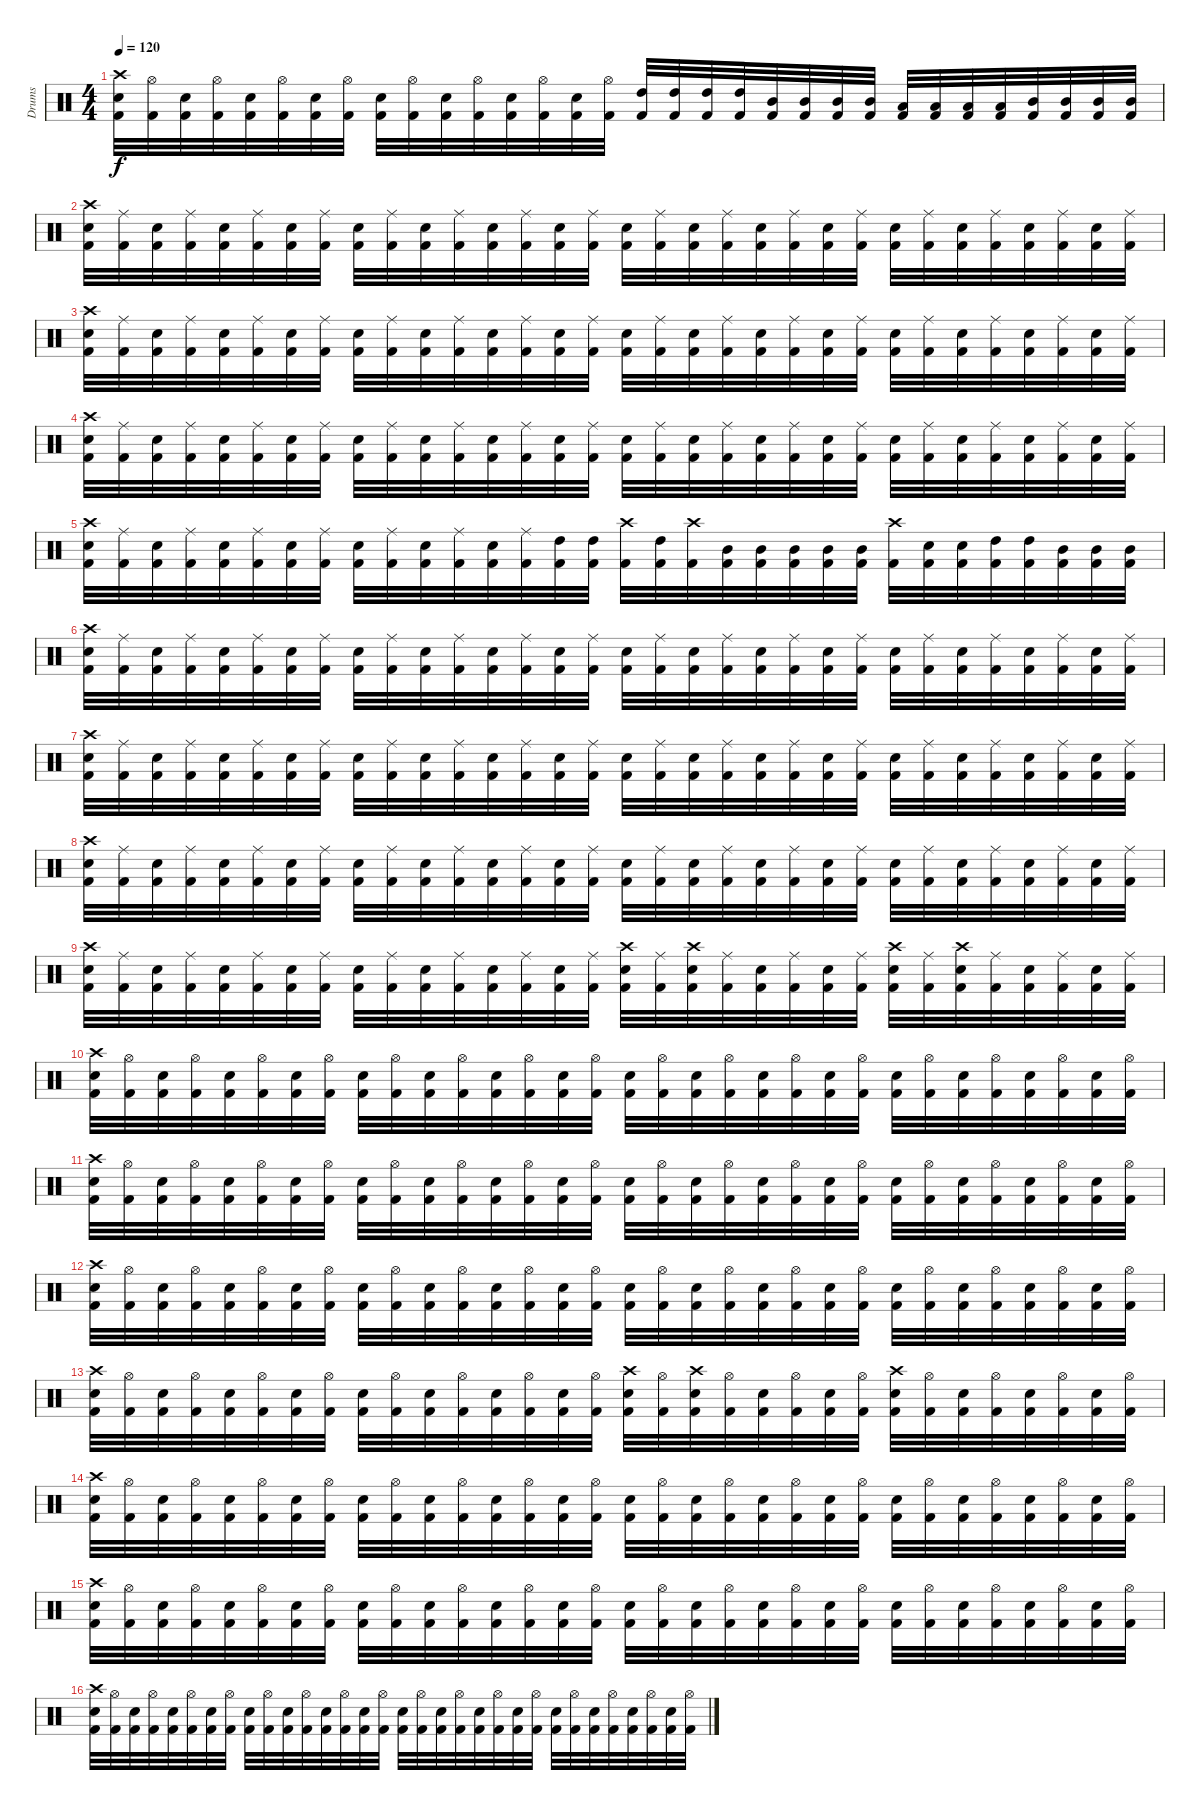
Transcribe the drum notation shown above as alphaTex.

\track ("Drums" "Drums") {instrument percussion}
\staff {score}
\articulation defaults
\ts (4 4)
\tempo 120
\clef neutral
\ks c
("Kick (hit) 2" "Electric Snare (hit)" "Crash high (hit)").32{dy f} ("Kick (hit) 2" "Hi-Hat (open)").32 ("Kick (hit) 2" "Electric Snare (hit)").32 ("Kick (hit) 2" "Hi-Hat (open)").32 ("Kick (hit) 2" "Electric Snare (hit)").32 ("Kick (hit) 2" "Hi-Hat (open)").32 ("Kick (hit) 2" "Electric Snare (hit)").32 ("Kick (hit) 2" "Hi-Hat (open)").32 ("Kick (hit) 2" "Electric Snare (hit)").32 ("Kick (hit) 2" "Hi-Hat (open)").32 ("Kick (hit) 2" "Electric Snare (hit)").32 ("Kick (hit) 2" "Hi-Hat (open)").32 ("Kick (hit) 2" "Electric Snare (hit)").32 ("Kick (hit) 2" "Hi-Hat (open)").32 ("Kick (hit) 2" "Electric Snare (hit)").32 ("Kick (hit) 2" "Hi-Hat (open)").32 ("Kick (hit) 2" "High Tom (hit)").32 ("Kick (hit) 2" "High Tom (hit)").32 ("Kick (hit) 2" "High Tom (hit)").32 ("Kick (hit) 2" "High Tom (hit)").32 ("Kick (hit) 2" "Mid Tom (hit)").32 ("Kick (hit) 2" "Mid Tom (hit)").32 ("Kick (hit) 2" "Mid Tom (hit)").32 ("Kick (hit) 2" "Mid Tom (hit)").32 ("Kick (hit) 2" "Low Tom (hit)").32 ("Kick (hit) 2" "Low Tom (hit)").32 ("Kick (hit) 2" "Low Tom (hit)").32 ("Kick (hit) 2" "Low Tom (hit)").32 ("Kick (hit) 2" "Mid Tom (hit)").32 ("Kick (hit) 2" "Mid Tom (hit)").32 ("Kick (hit) 2" "Mid Tom (hit)").32 ("Kick (hit) 2" "Mid Tom (hit)").32 |
("Kick (hit) 2" "Electric Snare (hit)" "Crash high (hit)").32 ("Kick (hit) 2" "Ride (middle)").32 ("Kick (hit) 2" "Electric Snare (hit)").32 ("Kick (hit) 2" "Ride (middle)").32 ("Kick (hit) 2" "Electric Snare (hit)").32 ("Kick (hit) 2" "Ride (middle)").32 ("Kick (hit) 2" "Electric Snare (hit)").32 ("Kick (hit) 2" "Ride (middle)").32 ("Kick (hit) 2" "Electric Snare (hit)").32 ("Kick (hit) 2" "Ride (middle)").32 ("Kick (hit) 2" "Electric Snare (hit)").32 ("Kick (hit) 2" "Ride (middle)").32 ("Kick (hit) 2" "Electric Snare (hit)").32 ("Kick (hit) 2" "Ride (middle)").32 ("Kick (hit) 2" "Electric Snare (hit)").32 ("Kick (hit) 2" "Ride (middle)").32 ("Kick (hit) 2" "Electric Snare (hit)").32 ("Kick (hit) 2" "Ride (middle)").32 ("Kick (hit) 2" "Electric Snare (hit)").32 ("Kick (hit) 2" "Ride (middle)").32 ("Kick (hit) 2" "Electric Snare (hit)").32 ("Kick (hit) 2" "Ride (middle)").32 ("Kick (hit) 2" "Electric Snare (hit)").32 ("Kick (hit) 2" "Ride (middle)").32 ("Kick (hit) 2" "Electric Snare (hit)").32 ("Kick (hit) 2" "Ride (middle)").32 ("Kick (hit) 2" "Electric Snare (hit)").32 ("Kick (hit) 2" "Ride (middle)").32 ("Kick (hit) 2" "Electric Snare (hit)").32 ("Kick (hit) 2" "Ride (middle)").32 ("Kick (hit) 2" "Electric Snare (hit)").32 ("Kick (hit) 2" "Ride (middle)").32 |
("Kick (hit) 2" "Electric Snare (hit)" "Crash high (hit)").32 ("Kick (hit) 2" "Ride (middle)").32 ("Kick (hit) 2" "Electric Snare (hit)").32 ("Kick (hit) 2" "Ride (middle)").32 ("Kick (hit) 2" "Electric Snare (hit)").32 ("Kick (hit) 2" "Ride (middle)").32 ("Kick (hit) 2" "Electric Snare (hit)").32 ("Kick (hit) 2" "Ride (middle)").32 ("Kick (hit) 2" "Electric Snare (hit)").32 ("Kick (hit) 2" "Ride (middle)").32 ("Kick (hit) 2" "Electric Snare (hit)").32 ("Kick (hit) 2" "Ride (middle)").32 ("Kick (hit) 2" "Electric Snare (hit)").32 ("Kick (hit) 2" "Ride (middle)").32 ("Kick (hit) 2" "Electric Snare (hit)").32 ("Kick (hit) 2" "Ride (middle)").32 ("Kick (hit) 2" "Electric Snare (hit)").32 ("Kick (hit) 2" "Ride (middle)").32 ("Kick (hit) 2" "Electric Snare (hit)").32 ("Kick (hit) 2" "Ride (middle)").32 ("Kick (hit) 2" "Electric Snare (hit)").32 ("Kick (hit) 2" "Ride (middle)").32 ("Kick (hit) 2" "Electric Snare (hit)").32 ("Kick (hit) 2" "Ride (middle)").32 ("Kick (hit) 2" "Electric Snare (hit)").32 ("Kick (hit) 2" "Ride (middle)").32 ("Kick (hit) 2" "Electric Snare (hit)").32 ("Kick (hit) 2" "Ride (middle)").32 ("Kick (hit) 2" "Electric Snare (hit)").32 ("Kick (hit) 2" "Ride (middle)").32 ("Kick (hit) 2" "Electric Snare (hit)").32 ("Kick (hit) 2" "Ride (middle)").32 |
("Kick (hit) 2" "Electric Snare (hit)" "Crash high (hit)").32 ("Kick (hit) 2" "Ride (middle)").32 ("Kick (hit) 2" "Electric Snare (hit)").32 ("Kick (hit) 2" "Ride (middle)").32 ("Kick (hit) 2" "Electric Snare (hit)").32 ("Kick (hit) 2" "Ride (middle)").32 ("Kick (hit) 2" "Electric Snare (hit)").32 ("Kick (hit) 2" "Ride (middle)").32 ("Kick (hit) 2" "Electric Snare (hit)").32 ("Kick (hit) 2" "Ride (middle)").32 ("Kick (hit) 2" "Electric Snare (hit)").32 ("Kick (hit) 2" "Ride (middle)").32 ("Kick (hit) 2" "Electric Snare (hit)").32 ("Kick (hit) 2" "Ride (middle)").32 ("Kick (hit) 2" "Electric Snare (hit)").32 ("Kick (hit) 2" "Ride (middle)").32 ("Kick (hit) 2" "Electric Snare (hit)").32 ("Kick (hit) 2" "Ride (middle)").32 ("Kick (hit) 2" "Electric Snare (hit)").32 ("Kick (hit) 2" "Ride (middle)").32 ("Kick (hit) 2" "Electric Snare (hit)").32 ("Kick (hit) 2" "Ride (middle)").32 ("Kick (hit) 2" "Electric Snare (hit)").32 ("Kick (hit) 2" "Ride (middle)").32 ("Kick (hit) 2" "Electric Snare (hit)").32 ("Kick (hit) 2" "Ride (middle)").32 ("Kick (hit) 2" "Electric Snare (hit)").32 ("Kick (hit) 2" "Ride (middle)").32 ("Kick (hit) 2" "Electric Snare (hit)").32 ("Kick (hit) 2" "Ride (middle)").32 ("Kick (hit) 2" "Electric Snare (hit)").32 ("Kick (hit) 2" "Ride (middle)").32 |
("Kick (hit) 2" "Electric Snare (hit)" "Crash high (hit)").32 ("Kick (hit) 2" "Ride (middle)").32 ("Kick (hit) 2" "Electric Snare (hit)").32 ("Kick (hit) 2" "Ride (middle)").32 ("Kick (hit) 2" "Electric Snare (hit)").32 ("Kick (hit) 2" "Ride (middle)").32 ("Kick (hit) 2" "Electric Snare (hit)").32 ("Kick (hit) 2" "Ride (middle)").32 ("Kick (hit) 2" "Electric Snare (hit)").32 ("Kick (hit) 2" "Ride (middle)").32 ("Kick (hit) 2" "Electric Snare (hit)").32 ("Kick (hit) 2" "Ride (middle)").32 ("Kick (hit) 2" "Electric Snare (hit)").32 ("Kick (hit) 2" "Ride (middle)").32 ("Kick (hit) 2" "High Tom (hit)").32 ("Kick (hit) 2" "High Tom (hit)").32 ("Kick (hit) 2" "Crash high (hit)").32 ("Kick (hit) 2" "High Tom (hit)").32 ("Kick (hit) 2" "Crash high (hit)").32 ("Kick (hit) 2" "Mid Tom (hit)").32 ("Kick (hit) 2" "Mid Tom (hit)").32 ("Kick (hit) 2" "Mid Tom (hit)").32 ("Kick (hit) 2" "Mid Tom (hit)").32 ("Kick (hit) 2" "Mid Tom (hit)").32 ("Kick (hit) 2" "Crash high (hit)").32 ("Kick (hit) 2" "Electric Snare (hit)").32 ("Kick (hit) 2" "Electric Snare (hit)").32 ("Kick (hit) 2" "High Tom (hit)").32 ("Kick (hit) 2" "High Tom (hit)").32 ("Kick (hit) 2" "Mid Tom (hit)").32 ("Kick (hit) 2" "Mid Tom (hit)").32 ("Kick (hit) 2" "Mid Tom (hit)").32 |
("Kick (hit) 2" "Electric Snare (hit)" "Crash high (hit)").32 ("Kick (hit) 2" "Ride (middle)").32 ("Kick (hit) 2" "Electric Snare (hit)").32 ("Kick (hit) 2" "Ride (middle)").32 ("Kick (hit) 2" "Electric Snare (hit)").32 ("Kick (hit) 2" "Ride (middle)").32 ("Kick (hit) 2" "Electric Snare (hit)").32 ("Kick (hit) 2" "Ride (middle)").32 ("Kick (hit) 2" "Electric Snare (hit)").32 ("Kick (hit) 2" "Ride (middle)").32 ("Kick (hit) 2" "Electric Snare (hit)").32 ("Kick (hit) 2" "Ride (middle)").32 ("Kick (hit) 2" "Electric Snare (hit)").32 ("Kick (hit) 2" "Ride (middle)").32 ("Kick (hit) 2" "Electric Snare (hit)").32 ("Kick (hit) 2" "Ride (middle)").32 ("Kick (hit) 2" "Electric Snare (hit)").32 ("Kick (hit) 2" "Ride (middle)").32 ("Kick (hit) 2" "Electric Snare (hit)").32 ("Kick (hit) 2" "Ride (middle)").32 ("Kick (hit) 2" "Electric Snare (hit)").32 ("Kick (hit) 2" "Ride (middle)").32 ("Kick (hit) 2" "Electric Snare (hit)").32 ("Kick (hit) 2" "Ride (middle)").32 ("Kick (hit) 2" "Electric Snare (hit)").32 ("Kick (hit) 2" "Ride (middle)").32 ("Kick (hit) 2" "Electric Snare (hit)").32 ("Kick (hit) 2" "Ride (middle)").32 ("Kick (hit) 2" "Electric Snare (hit)").32 ("Kick (hit) 2" "Ride (middle)").32 ("Kick (hit) 2" "Electric Snare (hit)").32 ("Kick (hit) 2" "Ride (middle)").32 |
("Kick (hit) 2" "Electric Snare (hit)" "Crash high (hit)").32 ("Kick (hit) 2" "Ride (middle)").32 ("Kick (hit) 2" "Electric Snare (hit)").32 ("Kick (hit) 2" "Ride (middle)").32 ("Kick (hit) 2" "Electric Snare (hit)").32 ("Kick (hit) 2" "Ride (middle)").32 ("Kick (hit) 2" "Electric Snare (hit)").32 ("Kick (hit) 2" "Ride (middle)").32 ("Kick (hit) 2" "Electric Snare (hit)").32 ("Kick (hit) 2" "Ride (middle)").32 ("Kick (hit) 2" "Electric Snare (hit)").32 ("Kick (hit) 2" "Ride (middle)").32 ("Kick (hit) 2" "Electric Snare (hit)").32 ("Kick (hit) 2" "Ride (middle)").32 ("Kick (hit) 2" "Electric Snare (hit)").32 ("Kick (hit) 2" "Ride (middle)").32 ("Kick (hit) 2" "Electric Snare (hit)").32 ("Kick (hit) 2" "Ride (middle)").32 ("Kick (hit) 2" "Electric Snare (hit)").32 ("Kick (hit) 2" "Ride (middle)").32 ("Kick (hit) 2" "Electric Snare (hit)").32 ("Kick (hit) 2" "Ride (middle)").32 ("Kick (hit) 2" "Electric Snare (hit)").32 ("Kick (hit) 2" "Ride (middle)").32 ("Kick (hit) 2" "Electric Snare (hit)").32 ("Kick (hit) 2" "Ride (middle)").32 ("Kick (hit) 2" "Electric Snare (hit)").32 ("Kick (hit) 2" "Ride (middle)").32 ("Kick (hit) 2" "Electric Snare (hit)").32 ("Kick (hit) 2" "Ride (middle)").32 ("Kick (hit) 2" "Electric Snare (hit)").32 ("Kick (hit) 2" "Ride (middle)").32 |
("Kick (hit) 2" "Electric Snare (hit)" "Crash high (hit)").32 ("Kick (hit) 2" "Ride (middle)").32 ("Kick (hit) 2" "Electric Snare (hit)").32 ("Kick (hit) 2" "Ride (middle)").32 ("Kick (hit) 2" "Electric Snare (hit)").32 ("Kick (hit) 2" "Ride (middle)").32 ("Kick (hit) 2" "Electric Snare (hit)").32 ("Kick (hit) 2" "Ride (middle)").32 ("Kick (hit) 2" "Electric Snare (hit)").32 ("Kick (hit) 2" "Ride (middle)").32 ("Kick (hit) 2" "Electric Snare (hit)").32 ("Kick (hit) 2" "Ride (middle)").32 ("Kick (hit) 2" "Electric Snare (hit)").32 ("Kick (hit) 2" "Ride (middle)").32 ("Kick (hit) 2" "Electric Snare (hit)").32 ("Kick (hit) 2" "Ride (middle)").32 ("Kick (hit) 2" "Electric Snare (hit)").32 ("Kick (hit) 2" "Ride (middle)").32 ("Kick (hit) 2" "Electric Snare (hit)").32 ("Kick (hit) 2" "Ride (middle)").32 ("Kick (hit) 2" "Electric Snare (hit)").32 ("Kick (hit) 2" "Ride (middle)").32 ("Kick (hit) 2" "Electric Snare (hit)").32 ("Kick (hit) 2" "Ride (middle)").32 ("Kick (hit) 2" "Electric Snare (hit)").32 ("Kick (hit) 2" "Ride (middle)").32 ("Kick (hit) 2" "Electric Snare (hit)").32 ("Kick (hit) 2" "Ride (middle)").32 ("Kick (hit) 2" "Electric Snare (hit)").32 ("Kick (hit) 2" "Ride (middle)").32 ("Kick (hit) 2" "Electric Snare (hit)").32 ("Kick (hit) 2" "Ride (middle)").32 |
("Kick (hit) 2" "Electric Snare (hit)" "Crash high (hit)").32 ("Kick (hit) 2" "Ride (middle)").32 ("Kick (hit) 2" "Electric Snare (hit)").32 ("Kick (hit) 2" "Ride (middle)").32 ("Kick (hit) 2" "Electric Snare (hit)").32 ("Kick (hit) 2" "Ride (middle)").32 ("Kick (hit) 2" "Electric Snare (hit)").32 ("Kick (hit) 2" "Ride (middle)").32 ("Kick (hit) 2" "Electric Snare (hit)").32 ("Kick (hit) 2" "Ride (middle)").32 ("Kick (hit) 2" "Electric Snare (hit)").32 ("Kick (hit) 2" "Ride (middle)").32 ("Kick (hit) 2" "Electric Snare (hit)").32 ("Kick (hit) 2" "Ride (middle)").32 ("Kick (hit) 2" "Electric Snare (hit)").32 ("Kick (hit) 2" "Ride (middle)").32 ("Kick (hit) 2" "Electric Snare (hit)" "Crash high (hit)").32 ("Kick (hit) 2" "Ride (middle)").32 ("Kick (hit) 2" "Electric Snare (hit)" "Crash high (hit)").32 ("Kick (hit) 2" "Ride (middle)").32 ("Kick (hit) 2" "Electric Snare (hit)").32 ("Kick (hit) 2" "Ride (middle)").32 ("Kick (hit) 2" "Electric Snare (hit)").32 ("Kick (hit) 2" "Ride (middle)").32 ("Kick (hit) 2" "Electric Snare (hit)" "Crash high (hit)").32 ("Kick (hit) 2" "Ride (middle)").32 ("Kick (hit) 2" "Electric Snare (hit)" "Crash high (hit)").32 ("Kick (hit) 2" "Ride (middle)").32 ("Kick (hit) 2" "Electric Snare (hit)").32 ("Kick (hit) 2" "Ride (middle)").32 ("Kick (hit) 2" "Electric Snare (hit)").32 ("Kick (hit) 2" "Ride (middle)").32 |
("Kick (hit) 2" "Electric Snare (hit)" "Crash high (hit)").32 ("Kick (hit) 2" "Hi-Hat (open)").32 ("Kick (hit) 2" "Electric Snare (hit)").32 ("Kick (hit) 2" "Hi-Hat (open)").32 ("Kick (hit) 2" "Electric Snare (hit)").32 ("Kick (hit) 2" "Hi-Hat (open)").32 ("Kick (hit) 2" "Electric Snare (hit)").32 ("Kick (hit) 2" "Hi-Hat (open)").32 ("Kick (hit) 2" "Electric Snare (hit)").32 ("Kick (hit) 2" "Hi-Hat (open)").32 ("Kick (hit) 2" "Electric Snare (hit)").32 ("Kick (hit) 2" "Hi-Hat (open)").32 ("Kick (hit) 2" "Electric Snare (hit)").32 ("Kick (hit) 2" "Hi-Hat (open)").32 ("Kick (hit) 2" "Electric Snare (hit)").32 ("Kick (hit) 2" "Hi-Hat (open)").32 ("Kick (hit) 2" "Electric Snare (hit)").32 ("Kick (hit) 2" "Hi-Hat (open)").32 ("Kick (hit) 2" "Electric Snare (hit)").32 ("Kick (hit) 2" "Hi-Hat (open)").32 ("Kick (hit) 2" "Electric Snare (hit)").32 ("Kick (hit) 2" "Hi-Hat (open)").32 ("Kick (hit) 2" "Electric Snare (hit)").32 ("Kick (hit) 2" "Hi-Hat (open)").32 ("Kick (hit) 2" "Electric Snare (hit)").32 ("Kick (hit) 2" "Hi-Hat (open)").32 ("Kick (hit) 2" "Electric Snare (hit)").32 ("Kick (hit) 2" "Hi-Hat (open)").32 ("Kick (hit) 2" "Electric Snare (hit)").32 ("Kick (hit) 2" "Hi-Hat (open)").32 ("Kick (hit) 2" "Electric Snare (hit)").32 ("Kick (hit) 2" "Hi-Hat (open)").32 |
("Kick (hit) 2" "Electric Snare (hit)" "Crash high (hit)").32 ("Kick (hit) 2" "Hi-Hat (open)").32 ("Kick (hit) 2" "Electric Snare (hit)").32 ("Kick (hit) 2" "Hi-Hat (open)").32 ("Kick (hit) 2" "Electric Snare (hit)").32 ("Kick (hit) 2" "Hi-Hat (open)").32 ("Kick (hit) 2" "Electric Snare (hit)").32 ("Kick (hit) 2" "Hi-Hat (open)").32 ("Kick (hit) 2" "Electric Snare (hit)").32 ("Kick (hit) 2" "Hi-Hat (open)").32 ("Kick (hit) 2" "Electric Snare (hit)").32 ("Kick (hit) 2" "Hi-Hat (open)").32 ("Kick (hit) 2" "Electric Snare (hit)").32 ("Kick (hit) 2" "Hi-Hat (open)").32 ("Kick (hit) 2" "Electric Snare (hit)").32 ("Kick (hit) 2" "Hi-Hat (open)").32 ("Kick (hit) 2" "Electric Snare (hit)").32 ("Kick (hit) 2" "Hi-Hat (open)").32 ("Kick (hit) 2" "Electric Snare (hit)").32 ("Kick (hit) 2" "Hi-Hat (open)").32 ("Kick (hit) 2" "Electric Snare (hit)").32 ("Kick (hit) 2" "Hi-Hat (open)").32 ("Kick (hit) 2" "Electric Snare (hit)").32 ("Kick (hit) 2" "Hi-Hat (open)").32 ("Kick (hit) 2" "Electric Snare (hit)").32 ("Kick (hit) 2" "Hi-Hat (open)").32 ("Kick (hit) 2" "Electric Snare (hit)").32 ("Kick (hit) 2" "Hi-Hat (open)").32 ("Kick (hit) 2" "Electric Snare (hit)").32 ("Kick (hit) 2" "Hi-Hat (open)").32 ("Kick (hit) 2" "Electric Snare (hit)").32 ("Kick (hit) 2" "Hi-Hat (open)").32 |
("Kick (hit) 2" "Electric Snare (hit)" "Crash high (hit)").32 ("Kick (hit) 2" "Hi-Hat (open)").32 ("Kick (hit) 2" "Electric Snare (hit)").32 ("Kick (hit) 2" "Hi-Hat (open)").32 ("Kick (hit) 2" "Electric Snare (hit)").32 ("Kick (hit) 2" "Hi-Hat (open)").32 ("Kick (hit) 2" "Electric Snare (hit)").32 ("Kick (hit) 2" "Hi-Hat (open)").32 ("Kick (hit) 2" "Electric Snare (hit)").32 ("Kick (hit) 2" "Hi-Hat (open)").32 ("Kick (hit) 2" "Electric Snare (hit)").32 ("Kick (hit) 2" "Hi-Hat (open)").32 ("Kick (hit) 2" "Electric Snare (hit)").32 ("Kick (hit) 2" "Hi-Hat (open)").32 ("Kick (hit) 2" "Electric Snare (hit)").32 ("Kick (hit) 2" "Hi-Hat (open)").32 ("Kick (hit) 2" "Electric Snare (hit)").32 ("Kick (hit) 2" "Hi-Hat (open)").32 ("Kick (hit) 2" "Electric Snare (hit)").32 ("Kick (hit) 2" "Hi-Hat (open)").32 ("Kick (hit) 2" "Electric Snare (hit)").32 ("Kick (hit) 2" "Hi-Hat (open)").32 ("Kick (hit) 2" "Electric Snare (hit)").32 ("Kick (hit) 2" "Hi-Hat (open)").32 ("Kick (hit) 2" "Electric Snare (hit)").32 ("Kick (hit) 2" "Hi-Hat (open)").32 ("Kick (hit) 2" "Electric Snare (hit)").32 ("Kick (hit) 2" "Hi-Hat (open)").32 ("Kick (hit) 2" "Electric Snare (hit)").32 ("Kick (hit) 2" "Hi-Hat (open)").32 ("Kick (hit) 2" "Electric Snare (hit)").32 ("Kick (hit) 2" "Hi-Hat (open)").32 |
("Kick (hit) 2" "Electric Snare (hit)" "Crash high (hit)").32 ("Kick (hit) 2" "Hi-Hat (open)").32 ("Kick (hit) 2" "Electric Snare (hit)").32 ("Kick (hit) 2" "Hi-Hat (open)").32 ("Kick (hit) 2" "Electric Snare (hit)").32 ("Kick (hit) 2" "Hi-Hat (open)").32 ("Kick (hit) 2" "Electric Snare (hit)").32 ("Kick (hit) 2" "Hi-Hat (open)").32 ("Kick (hit) 2" "Electric Snare (hit)").32 ("Kick (hit) 2" "Hi-Hat (open)").32 ("Kick (hit) 2" "Electric Snare (hit)").32 ("Kick (hit) 2" "Hi-Hat (open)").32 ("Kick (hit) 2" "Electric Snare (hit)").32 ("Kick (hit) 2" "Hi-Hat (open)").32 ("Kick (hit) 2" "Electric Snare (hit)").32 ("Kick (hit) 2" "Hi-Hat (open)").32 ("Kick (hit) 2" "Electric Snare (hit)" "Crash high (hit)").32 ("Kick (hit) 2" "Hi-Hat (open)").32 ("Kick (hit) 2" "Electric Snare (hit)" "Crash high (hit)").32 ("Kick (hit) 2" "Hi-Hat (open)").32 ("Kick (hit) 2" "Electric Snare (hit)").32 ("Kick (hit) 2" "Hi-Hat (open)").32 ("Kick (hit) 2" "Electric Snare (hit)").32 ("Kick (hit) 2" "Hi-Hat (open)").32 ("Kick (hit) 2" "Electric Snare (hit)" "Crash high (hit)").32 ("Kick (hit) 2" "Hi-Hat (open)").32 ("Kick (hit) 2" "Electric Snare (hit)").32 ("Kick (hit) 2" "Hi-Hat (open)").32 ("Kick (hit) 2" "Electric Snare (hit)").32 ("Kick (hit) 2" "Hi-Hat (open)").32 ("Kick (hit) 2" "Electric Snare (hit)").32 ("Kick (hit) 2" "Hi-Hat (open)").32 |
("Kick (hit) 2" "Electric Snare (hit)" "Crash high (hit)").32 ("Kick (hit) 2" "Hi-Hat (open)").32 ("Kick (hit) 2" "Electric Snare (hit)").32 ("Kick (hit) 2" "Hi-Hat (open)").32 ("Kick (hit) 2" "Electric Snare (hit)").32 ("Kick (hit) 2" "Hi-Hat (open)").32 ("Kick (hit) 2" "Electric Snare (hit)").32 ("Kick (hit) 2" "Hi-Hat (open)").32 ("Kick (hit) 2" "Electric Snare (hit)").32 ("Kick (hit) 2" "Hi-Hat (open)").32 ("Kick (hit) 2" "Electric Snare (hit)").32 ("Kick (hit) 2" "Hi-Hat (open)").32 ("Kick (hit) 2" "Electric Snare (hit)").32 ("Kick (hit) 2" "Hi-Hat (open)").32 ("Kick (hit) 2" "Electric Snare (hit)").32 ("Kick (hit) 2" "Hi-Hat (open)").32 ("Kick (hit) 2" "Electric Snare (hit)").32 ("Kick (hit) 2" "Hi-Hat (open)").32 ("Kick (hit) 2" "Electric Snare (hit)").32 ("Kick (hit) 2" "Hi-Hat (open)").32 ("Kick (hit) 2" "Electric Snare (hit)").32 ("Kick (hit) 2" "Hi-Hat (open)").32 ("Kick (hit) 2" "Electric Snare (hit)").32 ("Kick (hit) 2" "Hi-Hat (open)").32 ("Kick (hit) 2" "Electric Snare (hit)").32 ("Kick (hit) 2" "Hi-Hat (open)").32 ("Kick (hit) 2" "Electric Snare (hit)").32 ("Kick (hit) 2" "Hi-Hat (open)").32 ("Kick (hit) 2" "Electric Snare (hit)").32 ("Kick (hit) 2" "Hi-Hat (open)").32 ("Kick (hit) 2" "Electric Snare (hit)").32 ("Kick (hit) 2" "Hi-Hat (open)").32 |
("Kick (hit) 2" "Electric Snare (hit)" "Crash high (hit)").32 ("Kick (hit) 2" "Hi-Hat (open)").32 ("Kick (hit) 2" "Electric Snare (hit)").32 ("Kick (hit) 2" "Hi-Hat (open)").32 ("Kick (hit) 2" "Electric Snare (hit)").32 ("Kick (hit) 2" "Hi-Hat (open)").32 ("Kick (hit) 2" "Electric Snare (hit)").32 ("Kick (hit) 2" "Hi-Hat (open)").32 ("Kick (hit) 2" "Electric Snare (hit)").32 ("Kick (hit) 2" "Hi-Hat (open)").32 ("Kick (hit) 2" "Electric Snare (hit)").32 ("Kick (hit) 2" "Hi-Hat (open)").32 ("Kick (hit) 2" "Electric Snare (hit)").32 ("Kick (hit) 2" "Hi-Hat (open)").32 ("Kick (hit) 2" "Electric Snare (hit)").32 ("Kick (hit) 2" "Hi-Hat (open)").32 ("Kick (hit) 2" "Electric Snare (hit)").32 ("Kick (hit) 2" "Hi-Hat (open)").32 ("Kick (hit) 2" "Electric Snare (hit)").32 ("Kick (hit) 2" "Hi-Hat (open)").32 ("Kick (hit) 2" "Electric Snare (hit)").32 ("Kick (hit) 2" "Hi-Hat (open)").32 ("Kick (hit) 2" "Electric Snare (hit)").32 ("Kick (hit) 2" "Hi-Hat (open)").32 ("Kick (hit) 2" "Electric Snare (hit)").32 ("Kick (hit) 2" "Hi-Hat (open)").32 ("Kick (hit) 2" "Electric Snare (hit)").32 ("Kick (hit) 2" "Hi-Hat (open)").32 ("Kick (hit) 2" "Electric Snare (hit)").32 ("Kick (hit) 2" "Hi-Hat (open)").32 ("Kick (hit) 2" "Electric Snare (hit)").32 ("Kick (hit) 2" "Hi-Hat (open)").32 |
("Kick (hit) 2" "Electric Snare (hit)" "Crash high (hit)").32 ("Kick (hit) 2" "Hi-Hat (open)").32 ("Kick (hit) 2" "Electric Snare (hit)").32 ("Kick (hit) 2" "Hi-Hat (open)").32 ("Kick (hit) 2" "Electric Snare (hit)").32 ("Kick (hit) 2" "Hi-Hat (open)").32 ("Kick (hit) 2" "Electric Snare (hit)").32 ("Kick (hit) 2" "Hi-Hat (open)").32 ("Kick (hit) 2" "Electric Snare (hit)").32 ("Kick (hit) 2" "Hi-Hat (open)").32 ("Kick (hit) 2" "Electric Snare (hit)").32 ("Kick (hit) 2" "Hi-Hat (open)").32 ("Kick (hit) 2" "Electric Snare (hit)").32 ("Kick (hit) 2" "Hi-Hat (open)").32 ("Kick (hit) 2" "Electric Snare (hit)").32 ("Kick (hit) 2" "Hi-Hat (open)").32 ("Kick (hit) 2" "Electric Snare (hit)").32 ("Kick (hit) 2" "Hi-Hat (open)").32 ("Kick (hit) 2" "Electric Snare (hit)").32 ("Kick (hit) 2" "Hi-Hat (open)").32 ("Kick (hit) 2" "Electric Snare (hit)").32 ("Kick (hit) 2" "Hi-Hat (open)").32 ("Kick (hit) 2" "Electric Snare (hit)").32 ("Kick (hit) 2" "Hi-Hat (open)").32 ("Kick (hit) 2" "Electric Snare (hit)").32 ("Kick (hit) 2" "Hi-Hat (open)").32 ("Kick (hit) 2" "Electric Snare (hit)").32 ("Kick (hit) 2" "Hi-Hat (open)").32 ("Kick (hit) 2" "Electric Snare (hit)").32 ("Kick (hit) 2" "Hi-Hat (open)").32 ("Kick (hit) 2" "Electric Snare (hit)").32 ("Kick (hit) 2" "Hi-Hat (open)").32
